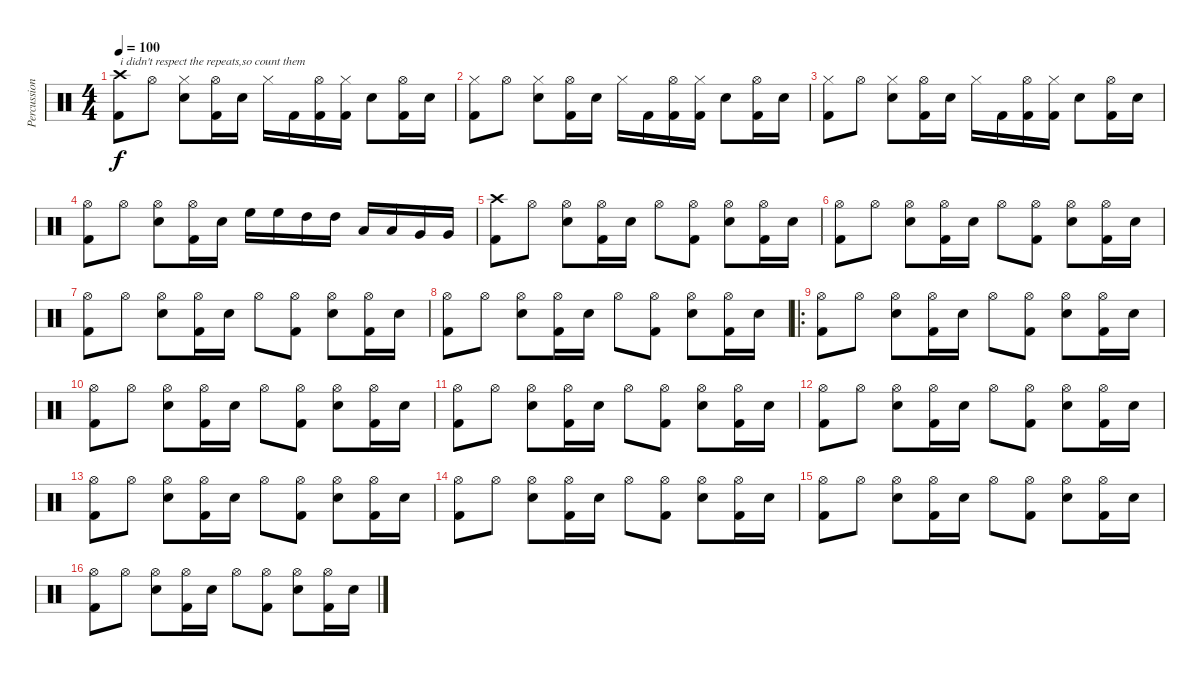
\track ("Percussion" "Percussion") {instrument percussion}
\staff {score}
\articulation defaults
\ts (4 4)
\tempo 100
\clef neutral
\ks c
("Crash high (hit)" "Kick (hit) 2").8{txt "i didn't respect the repeats,so count them" dy f} "Hi-Hat (open)".8 ("Hi-Hat (closed)" "Electric Snare (hit)").8 ("Hi-Hat (open)" "Kick (hit) 2").16 "Electric Snare (hit)".16 "Hi-Hat (closed)".16 "Kick (hit) 2".16 ("Hi-Hat (open)" "Kick (hit) 2").16 ("Hi-Hat (closed)" "Kick (hit) 2").16 "Electric Snare (hit)".8 ("Hi-Hat (open)" "Kick (hit) 2").16 "Electric Snare (hit)".16 |
("Hi-Hat (closed)" "Kick (hit) 2").8 "Hi-Hat (open)".8 ("Hi-Hat (closed)" "Electric Snare (hit)").8 ("Hi-Hat (open)" "Kick (hit) 2").16 "Electric Snare (hit)".16 "Hi-Hat (closed)".16 "Kick (hit) 2".16 ("Hi-Hat (open)" "Kick (hit) 2").16 ("Hi-Hat (closed)" "Kick (hit) 2").16 "Electric Snare (hit)".8 ("Hi-Hat (open)" "Kick (hit) 2").16 "Electric Snare (hit)".16 |
("Hi-Hat (closed)" "Kick (hit) 2").8 "Hi-Hat (open)".8 ("Hi-Hat (closed)" "Electric Snare (hit)").8 ("Hi-Hat (open)" "Kick (hit) 2").16 "Electric Snare (hit)".16 "Hi-Hat (closed)".16 "Kick (hit) 2".16 ("Hi-Hat (open)" "Kick (hit) 2").16 ("Hi-Hat (closed)" "Kick (hit) 2").16 "Electric Snare (hit)".8 ("Hi-Hat (open)" "Kick (hit) 2").16 "Electric Snare (hit)".16 |
("Hi-Hat (open)" "Kick (hit) 2").8 "Hi-Hat (open)".8 ("Hi-Hat (open)" "Electric Snare (hit)").8 ("Hi-Hat (open)" "Kick (hit) 2").16 "Electric Snare (hit)".16 "High Floor Tom (hit)".16 "High Floor Tom (hit)".16 "High Tom (hit)".16 "High Tom (hit)".16 "Low Tom (hit)".16 "Low Tom (hit)".16 "Very Low Tom (hit)".16 "Very Low Tom (hit)".16 |
("Crash high (hit)" "Kick (hit) 2").8 "Hi-Hat (open)".8 ("Hi-Hat (open)" "Electric Snare (hit)").8 ("Hi-Hat (open)" "Kick (hit) 2").16 "Electric Snare (hit)".16 "Hi-Hat (open)".8 ("Hi-Hat (open)" "Kick (hit) 2").8 ("Hi-Hat (open)" "Electric Snare (hit)").8 ("Hi-Hat (open)" "Kick (hit) 2").16 "Electric Snare (hit)".16 |
("Hi-Hat (open)" "Kick (hit) 2").8 "Hi-Hat (open)".8 ("Hi-Hat (open)" "Electric Snare (hit)").8 ("Hi-Hat (open)" "Kick (hit) 2").16 "Electric Snare (hit)".16 "Hi-Hat (open)".8 ("Hi-Hat (open)" "Kick (hit) 2").8 ("Hi-Hat (open)" "Electric Snare (hit)").8 ("Hi-Hat (open)" "Kick (hit) 2").16 "Electric Snare (hit)".16 |
("Hi-Hat (open)" "Kick (hit) 2").8 "Hi-Hat (open)".8 ("Hi-Hat (open)" "Electric Snare (hit)").8 ("Hi-Hat (open)" "Kick (hit) 2").16 "Electric Snare (hit)".16 "Hi-Hat (open)".8 ("Hi-Hat (open)" "Kick (hit) 2").8 ("Hi-Hat (open)" "Electric Snare (hit)").8 ("Hi-Hat (open)" "Kick (hit) 2").16 "Electric Snare (hit)".16 |
("Hi-Hat (open)" "Kick (hit) 2").8 "Hi-Hat (open)".8 ("Hi-Hat (open)" "Electric Snare (hit)").8 ("Hi-Hat (open)" "Kick (hit) 2").16 "Electric Snare (hit)".16 "Hi-Hat (open)".8 ("Hi-Hat (open)" "Kick (hit) 2").8 ("Hi-Hat (open)" "Electric Snare (hit)").8 ("Hi-Hat (open)" "Kick (hit) 2").16 "Electric Snare (hit)".16 |
\ro
("Hi-Hat (open)" "Kick (hit) 2").8 "Hi-Hat (open)".8 ("Hi-Hat (open)" "Electric Snare (hit)").8 ("Hi-Hat (open)" "Kick (hit) 2").16 "Electric Snare (hit)".16 "Hi-Hat (open)".8 ("Hi-Hat (open)" "Kick (hit) 2").8 ("Hi-Hat (open)" "Electric Snare (hit)").8 ("Hi-Hat (open)" "Kick (hit) 2").16 "Electric Snare (hit)".16 |
("Hi-Hat (open)" "Kick (hit) 2").8 "Hi-Hat (open)".8 ("Hi-Hat (open)" "Electric Snare (hit)").8 ("Hi-Hat (open)" "Kick (hit) 2").16 "Electric Snare (hit)".16 "Hi-Hat (open)".8 ("Hi-Hat (open)" "Kick (hit) 2").8 ("Hi-Hat (open)" "Electric Snare (hit)").8 ("Hi-Hat (open)" "Kick (hit) 2").16 "Electric Snare (hit)".16 |
("Hi-Hat (open)" "Kick (hit) 2").8 "Hi-Hat (open)".8 ("Hi-Hat (open)" "Electric Snare (hit)").8 ("Hi-Hat (open)" "Kick (hit) 2").16 "Electric Snare (hit)".16 "Hi-Hat (open)".8 ("Hi-Hat (open)" "Kick (hit) 2").8 ("Hi-Hat (open)" "Electric Snare (hit)").8 ("Hi-Hat (open)" "Kick (hit) 2").16 "Electric Snare (hit)".16 |
("Hi-Hat (open)" "Kick (hit) 2").8 "Hi-Hat (open)".8 ("Hi-Hat (open)" "Electric Snare (hit)").8 ("Hi-Hat (open)" "Kick (hit) 2").16 "Electric Snare (hit)".16 "Hi-Hat (open)".8 ("Hi-Hat (open)" "Kick (hit) 2").8 ("Hi-Hat (open)" "Electric Snare (hit)").8 ("Hi-Hat (open)" "Kick (hit) 2").16 "Electric Snare (hit)".16 |
("Hi-Hat (open)" "Kick (hit) 2").8 "Hi-Hat (open)".8 ("Hi-Hat (open)" "Electric Snare (hit)").8 ("Hi-Hat (open)" "Kick (hit) 2").16 "Electric Snare (hit)".16 "Hi-Hat (open)".8 ("Hi-Hat (open)" "Kick (hit) 2").8 ("Hi-Hat (open)" "Electric Snare (hit)").8 ("Hi-Hat (open)" "Kick (hit) 2").16 "Electric Snare (hit)".16 |
("Hi-Hat (open)" "Kick (hit) 2").8 "Hi-Hat (open)".8 ("Hi-Hat (open)" "Electric Snare (hit)").8 ("Hi-Hat (open)" "Kick (hit) 2").16 "Electric Snare (hit)".16 "Hi-Hat (open)".8 ("Hi-Hat (open)" "Kick (hit) 2").8 ("Hi-Hat (open)" "Electric Snare (hit)").8 ("Hi-Hat (open)" "Kick (hit) 2").16 "Electric Snare (hit)".16 |
("Hi-Hat (open)" "Kick (hit) 2").8 "Hi-Hat (open)".8 ("Hi-Hat (open)" "Electric Snare (hit)").8 ("Hi-Hat (open)" "Kick (hit) 2").16 "Electric Snare (hit)".16 "Hi-Hat (open)".8 ("Hi-Hat (open)" "Kick (hit) 2").8 ("Hi-Hat (open)" "Electric Snare (hit)").8 ("Hi-Hat (open)" "Kick (hit) 2").16 "Electric Snare (hit)".16 |
("Hi-Hat (open)" "Kick (hit) 2").8 "Hi-Hat (open)".8 ("Hi-Hat (open)" "Electric Snare (hit)").8 ("Hi-Hat (open)" "Kick (hit) 2").16 "Electric Snare (hit)".16 "Hi-Hat (open)".8 ("Hi-Hat (open)" "Kick (hit) 2").8 ("Hi-Hat (open)" "Electric Snare (hit)").8 ("Hi-Hat (open)" "Kick (hit) 2").16 "Electric Snare (hit)".16
